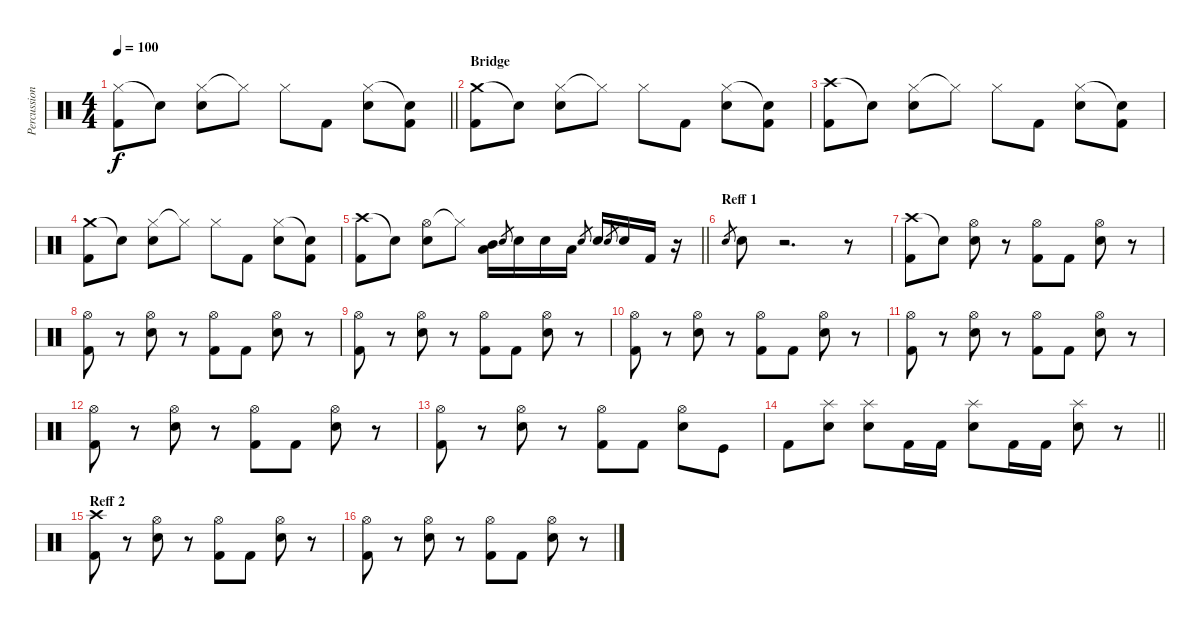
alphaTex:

\track ("Percussion(Tomi)" "Percussion") {instrument percussion}
\staff {score}
\articulation defaults
\ts (4 4)
\tempo 100
\clef neutral
\barLineRight lightlight
\ks c
("Hi-Hat (closed)" "Kick (hit) 2").8{dy f} "Snare (hit)"{t}.8 ("Hi-Hat (closed)" "Electric Snare (hit)").8 "Hi-Hat (closed)"{t}.8 "Hi-Hat (closed)".8 "Kick (hit) 2".8 ("Hi-Hat (closed)" "Electric Snare (hit)").8 ("Snare (hit)"{t} "Kick (hit) 2").8 |
\section ("" "Bridge")
("Crash medium (hit)" "Kick (hit) 2").8 "Snare (hit)"{t}.8 ("Hi-Hat (closed)" "Electric Snare (hit)").8 "Hi-Hat (closed)"{t}.8 "Hi-Hat (closed)".8 "Kick (hit) 2".8 ("Hi-Hat (closed)" "Electric Snare (hit)").8 ("Snare (hit)"{t} "Kick (hit) 2").8 |
("Crash high (hit)" "Kick (hit) 2").8 "Snare (hit)"{t}.8 ("Hi-Hat (closed)" "Electric Snare (hit)").8 "Hi-Hat (closed)"{t}.8 "Hi-Hat (closed)".8 "Kick (hit) 2".8 ("Hi-Hat (closed)" "Electric Snare (hit)").8 ("Snare (hit)"{t} "Kick (hit) 2").8 |
("Crash medium (hit)" "Kick (hit) 2").8 "Snare (hit)"{t}.8 ("Hi-Hat (closed)" "Electric Snare (hit)").8 "Hi-Hat (closed)"{t}.8 "Hi-Hat (closed)".8 "Kick (hit) 2".8 ("Hi-Hat (closed)" "Electric Snare (hit)").8 ("Snare (hit)"{t} "Kick (hit) 2").8 |
\barLineRight lightlight
("Crash high (hit)" "Kick (hit) 2").8 "Snare (hit)"{t}.8 ("Hi-Hat (open)" "Electric Snare (hit)").8 "Hi-Hat (closed)"{t}.8 ("Mid Tom (hit)" "Low Tom (hit)").16 "Electric Snare (hit)".8{gr} "Electric Snare (hit)".16 "Electric Snare (hit)".16 "Low Floor Tom (hit)".16 "Electric Snare (hit)".8{gr} "Electric Snare (hit)".16 "Electric Snare (hit)".8{gr} "Electric Snare (hit)".16 "Kick (hit) 2".16 r.16 |
\section ("" "Reff 1")
"Electric Snare (hit)".8{gr} "Electric Snare (hit)".8 r.2{d} r.8 |
("Crash high (hit)" "Kick (hit) 2").8 "Snare (hit)"{t}.8 ("Hi-Hat (open)" "Electric Snare (hit)").8 r.8 ("Hi-Hat (open)" "Kick (hit) 2").8 "Kick (hit) 2".8 ("Hi-Hat (open)" "Electric Snare (hit)").8 r.8 |
("Hi-Hat (open)" "Kick (hit) 2").8 r.8 ("Hi-Hat (open)" "Electric Snare (hit)").8 r.8 ("Hi-Hat (open)" "Kick (hit) 2").8 "Kick (hit) 2".8 ("Hi-Hat (open)" "Electric Snare (hit)").8 r.8 |
("Hi-Hat (open)" "Kick (hit) 2").8 r.8 ("Hi-Hat (open)" "Electric Snare (hit)").8 r.8 ("Hi-Hat (open)" "Kick (hit) 2").8 "Kick (hit) 2".8 ("Hi-Hat (open)" "Electric Snare (hit)").8 r.8 |
("Hi-Hat (open)" "Kick (hit) 2").8 r.8 ("Hi-Hat (open)" "Electric Snare (hit)").8 r.8 ("Hi-Hat (open)" "Kick (hit) 2").8 "Kick (hit) 2".8 ("Hi-Hat (open)" "Electric Snare (hit)").8 r.8 |
("Hi-Hat (open)" "Kick (hit) 2").8 r.8 ("Hi-Hat (open)" "Electric Snare (hit)").8 r.8 ("Hi-Hat (open)" "Kick (hit) 2").8 "Kick (hit) 2".8 ("Hi-Hat (open)" "Electric Snare (hit)").8 r.8 |
("Hi-Hat (open)" "Kick (hit) 2").8 r.8 ("Hi-Hat (open)" "Electric Snare (hit)").8 r.8 ("Hi-Hat (open)" "Kick (hit) 2").8 "Kick (hit) 2".8 ("Hi-Hat (open)" "Electric Snare (hit)").8 r.8 |
("Hi-Hat (open)" "Kick (hit) 2").8 r.8 ("Hi-Hat (open)" "Electric Snare (hit)").8 r.8 ("Hi-Hat (open)" "Kick (hit) 2").8 "Kick (hit) 2".8 ("Hi-Hat (open)" "Electric Snare (hit)").8 "Kick (hit)".8 |
\barLineRight lightlight "Kick (hit) 2".8
("Electric Snare (hit)" "Splash (hit)").8 ("Electric Snare (hit)" "Splash (hit)").8 "Kick (hit) 2".16 "Kick (hit) 2".16 ("Electric Snare (hit)" "Splash (hit)").8 "Kick (hit) 2".16 "Kick (hit) 2".16 ("Electric Snare (hit)" "Splash (hit)").8 r.8 |
\section ("" "Reff 2")
("Crash high (hit)" "Kick (hit) 2").8 r.8 ("Hi-Hat (open)" "Electric Snare (hit)").8 r.8 ("Hi-Hat (open)" "Kick (hit) 2").8 "Kick (hit) 2".8 ("Hi-Hat (open)" "Electric Snare (hit)").8 r.8 |
("Hi-Hat (open)" "Kick (hit) 2").8 r.8 ("Hi-Hat (open)" "Electric Snare (hit)").8 r.8 ("Hi-Hat (open)" "Kick (hit) 2").8 "Kick (hit) 2".8 ("Hi-Hat (open)" "Electric Snare (hit)").8 r.8
